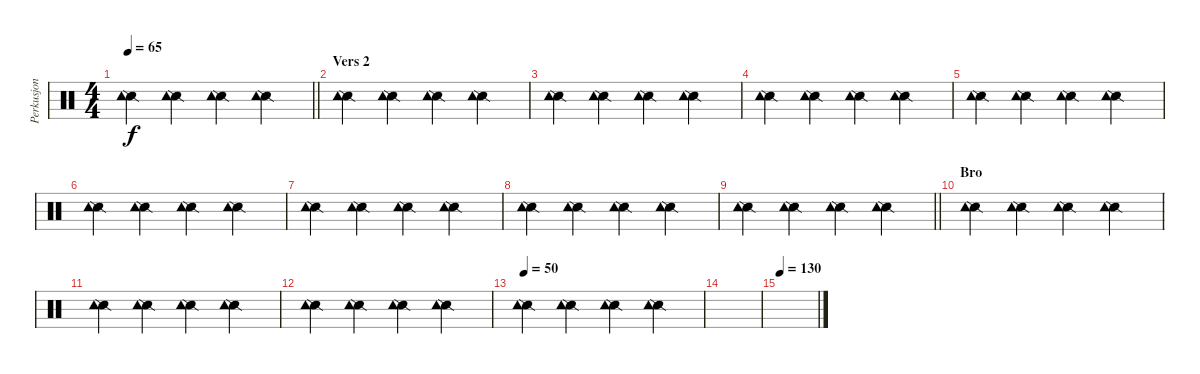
\track ("Perkusjon" "Perkusjon") {instrument percussion}
\staff {score}
\articulation defaults
\ts (4 4)
\tempo 65
\clef neutral
\barLineRight lightlight
\ks c
("Snare (side stick) 2" "Tambourine (hit)").4{dy f} ("Snare (side stick) 2" "Tambourine (hit)").4 ("Snare (side stick) 2" "Tambourine (hit)").4 ("Snare (side stick) 2" "Tambourine (hit)").4 |
\section ("" "Vers 2")
("Snare (side stick) 2" "Tambourine (hit)").4 ("Snare (side stick) 2" "Tambourine (hit)").4 ("Snare (side stick) 2" "Tambourine (hit)").4 ("Snare (side stick) 2" "Tambourine (hit)").4 |
("Snare (side stick) 2" "Tambourine (hit)").4 ("Snare (side stick) 2" "Tambourine (hit)").4 ("Snare (side stick) 2" "Tambourine (hit)").4 ("Snare (side stick) 2" "Tambourine (hit)").4 |
("Snare (side stick) 2" "Tambourine (hit)").4 ("Snare (side stick) 2" "Tambourine (hit)").4 ("Snare (side stick) 2" "Tambourine (hit)").4 ("Snare (side stick) 2" "Tambourine (hit)").4 |
("Snare (side stick) 2" "Tambourine (hit)").4 ("Snare (side stick) 2" "Tambourine (hit)").4 ("Snare (side stick) 2" "Tambourine (hit)").4 ("Snare (side stick) 2" "Tambourine (hit)").4 |
("Snare (side stick) 2" "Tambourine (hit)").4 ("Snare (side stick) 2" "Tambourine (hit)").4 ("Snare (side stick) 2" "Tambourine (hit)").4 ("Snare (side stick) 2" "Tambourine (hit)").4 |
("Snare (side stick) 2" "Tambourine (hit)").4 ("Snare (side stick) 2" "Tambourine (hit)").4 ("Snare (side stick) 2" "Tambourine (hit)").4 ("Snare (side stick) 2" "Tambourine (hit)").4 |
("Snare (side stick) 2" "Tambourine (hit)").4 ("Snare (side stick) 2" "Tambourine (hit)").4 ("Snare (side stick) 2" "Tambourine (hit)").4 ("Snare (side stick) 2" "Tambourine (hit)").4 |
\barLineRight lightlight
("Snare (side stick) 2" "Tambourine (hit)").4 ("Snare (side stick) 2" "Tambourine (hit)").4 ("Snare (side stick) 2" "Tambourine (hit)").4 ("Snare (side stick) 2" "Tambourine (hit)").4 |
\section ("" "Bro")
("Snare (side stick) 2" "Tambourine (hit)").4 ("Snare (side stick) 2" "Tambourine (hit)").4 ("Snare (side stick) 2" "Tambourine (hit)").4 ("Snare (side stick) 2" "Tambourine (hit)").4 |
("Snare (side stick) 2" "Tambourine (hit)").4 ("Snare (side stick) 2" "Tambourine (hit)").4 ("Snare (side stick) 2" "Tambourine (hit)").4 ("Snare (side stick) 2" "Tambourine (hit)").4 |
("Snare (side stick) 2" "Tambourine (hit)").4 ("Snare (side stick) 2" "Tambourine (hit)").4 ("Snare (side stick) 2" "Tambourine (hit)").4 ("Snare (side stick) 2" "Tambourine (hit)").4 |
\tempo 50
("Snare (side stick) 2" "Tambourine (hit)").4 ("Snare (side stick) 2" "Tambourine (hit)").4 ("Snare (side stick) 2" "Tambourine (hit)").4 ("Snare (side stick) 2" "Tambourine (hit)").4 |
|
\tempo 130
